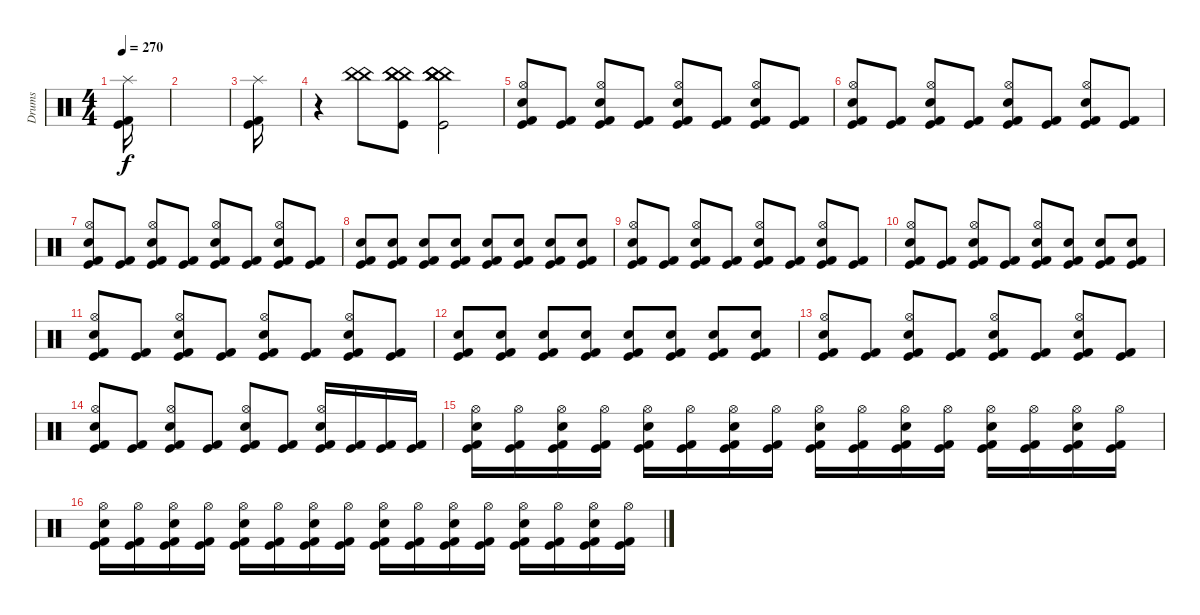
\track ("Drums" "Drums") {instrument percussion}
\staff {score}
\articulation defaults
\ts (4 4)
\tempo 270
\clef neutral
\ks c
("Splash (hit)" "Kick (hit)" "Kick (hit) 2").16{dy f} |
|
("Splash (hit)" "Kick (hit)" "Kick (hit) 2").16 |
r.4 ("China (hit)" "China (hit)").8 ("China (hit)" "China (hit)" "China (hit)" "Kick (hit)").8 ("China (hit)" "China (hit)" "China (hit)" "China (hit)" "Kick (hit)").2 |
("Hi-Hat (open)" "Electric Snare (hit)" "Kick (hit)" "Kick (hit) 2").8 ("Kick (hit)" "Kick (hit) 2").8 ("Hi-Hat (open)" "Electric Snare (hit)" "Kick (hit)" "Kick (hit) 2").8 ("Kick (hit)" "Kick (hit) 2").8 ("Hi-Hat (open)" "Electric Snare (hit)" "Kick (hit)" "Kick (hit) 2").8 ("Kick (hit)" "Kick (hit) 2").8 ("Hi-Hat (open)" "Electric Snare (hit)" "Kick (hit)" "Kick (hit) 2").8 ("Kick (hit)" "Kick (hit) 2").8 |
("Hi-Hat (open)" "Electric Snare (hit)" "Kick (hit)" "Kick (hit) 2").8 ("Kick (hit)" "Kick (hit) 2").8 ("Hi-Hat (open)" "Electric Snare (hit)" "Kick (hit)" "Kick (hit) 2").8 ("Kick (hit)" "Kick (hit) 2").8 ("Hi-Hat (open)" "Electric Snare (hit)" "Kick (hit)" "Kick (hit) 2").8 ("Kick (hit)" "Kick (hit) 2").8 ("Hi-Hat (open)" "Electric Snare (hit)" "Kick (hit)" "Kick (hit) 2").8 ("Kick (hit)" "Kick (hit) 2").8 |
("Hi-Hat (open)" "Electric Snare (hit)" "Kick (hit)" "Kick (hit) 2").8 ("Kick (hit)" "Kick (hit) 2").8 ("Hi-Hat (open)" "Electric Snare (hit)" "Kick (hit)" "Kick (hit) 2").8 ("Kick (hit)" "Kick (hit) 2").8 ("Hi-Hat (open)" "Electric Snare (hit)" "Kick (hit)" "Kick (hit) 2").8 ("Kick (hit)" "Kick (hit) 2").8 ("Hi-Hat (open)" "Electric Snare (hit)" "Kick (hit)" "Kick (hit) 2").8 ("Kick (hit)" "Kick (hit) 2").8 |
("Electric Snare (hit)" "Kick (hit)" "Kick (hit) 2").8 ("Electric Snare (hit)" "Kick (hit)" "Kick (hit) 2").8 ("Electric Snare (hit)" "Kick (hit)" "Kick (hit) 2").8 ("Electric Snare (hit)" "Kick (hit)" "Kick (hit) 2").8 ("Electric Snare (hit)" "Kick (hit)" "Kick (hit) 2").8 ("Electric Snare (hit)" "Kick (hit)" "Kick (hit) 2").8 ("Electric Snare (hit)" "Kick (hit)" "Kick (hit) 2").8 ("Electric Snare (hit)" "Kick (hit)" "Kick (hit) 2").8 |
("Hi-Hat (open)" "Electric Snare (hit)" "Kick (hit)" "Kick (hit) 2").8 ("Kick (hit)" "Kick (hit) 2").8 ("Hi-Hat (open)" "Electric Snare (hit)" "Kick (hit)" "Kick (hit) 2").8 ("Kick (hit)" "Kick (hit) 2").8 ("Hi-Hat (open)" "Electric Snare (hit)" "Kick (hit)" "Kick (hit) 2").8 ("Kick (hit)" "Kick (hit) 2").8 ("Hi-Hat (open)" "Electric Snare (hit)" "Kick (hit)" "Kick (hit) 2").8 ("Kick (hit)" "Kick (hit) 2").8 |
("Hi-Hat (open)" "Electric Snare (hit)" "Kick (hit)" "Kick (hit) 2").8 ("Kick (hit)" "Kick (hit) 2").8 ("Hi-Hat (open)" "Electric Snare (hit)" "Kick (hit)" "Kick (hit) 2").8 ("Kick (hit)" "Kick (hit) 2").8 ("Hi-Hat (open)" "Electric Snare (hit)" "Kick (hit)" "Kick (hit) 2").8 ("Electric Snare (hit)" "Kick (hit)" "Kick (hit) 2").8 ("Electric Snare (hit)" "Kick (hit)" "Kick (hit) 2").8 ("Electric Snare (hit)" "Kick (hit)" "Kick (hit) 2").8 |
("Hi-Hat (open)" "Electric Snare (hit)" "Kick (hit)" "Kick (hit) 2").8 ("Kick (hit)" "Kick (hit) 2").8 ("Hi-Hat (open)" "Electric Snare (hit)" "Kick (hit)" "Kick (hit) 2").8 ("Kick (hit)" "Kick (hit) 2").8 ("Hi-Hat (open)" "Electric Snare (hit)" "Kick (hit)" "Kick (hit) 2").8 ("Kick (hit)" "Kick (hit) 2").8 ("Hi-Hat (open)" "Electric Snare (hit)" "Kick (hit)" "Kick (hit) 2").8 ("Kick (hit)" "Kick (hit) 2").8 |
("Electric Snare (hit)" "Kick (hit)" "Kick (hit) 2").8 ("Electric Snare (hit)" "Kick (hit)" "Kick (hit) 2").8 ("Electric Snare (hit)" "Kick (hit)" "Kick (hit) 2").8 ("Electric Snare (hit)" "Kick (hit)" "Kick (hit) 2").8 ("Electric Snare (hit)" "Kick (hit)" "Kick (hit) 2").8 ("Electric Snare (hit)" "Kick (hit)" "Kick (hit) 2").8 ("Electric Snare (hit)" "Kick (hit)" "Kick (hit) 2").8 ("Electric Snare (hit)" "Kick (hit)" "Kick (hit) 2").8 |
("Hi-Hat (open)" "Electric Snare (hit)" "Kick (hit)" "Kick (hit) 2").8 ("Kick (hit)" "Kick (hit) 2").8 ("Hi-Hat (open)" "Electric Snare (hit)" "Kick (hit)" "Kick (hit) 2").8 ("Kick (hit)" "Kick (hit) 2").8 ("Hi-Hat (open)" "Electric Snare (hit)" "Kick (hit)" "Kick (hit) 2").8 ("Kick (hit)" "Kick (hit) 2").8 ("Hi-Hat (open)" "Electric Snare (hit)" "Kick (hit)" "Kick (hit) 2").8 ("Kick (hit)" "Kick (hit) 2").8 |
("Hi-Hat (open)" "Electric Snare (hit)" "Kick (hit)" "Kick (hit) 2").8 ("Kick (hit)" "Kick (hit) 2").8 ("Hi-Hat (open)" "Electric Snare (hit)" "Kick (hit)" "Kick (hit) 2").8 ("Kick (hit)" "Kick (hit) 2").8 ("Hi-Hat (open)" "Electric Snare (hit)" "Kick (hit)" "Kick (hit) 2").8 ("Kick (hit)" "Kick (hit) 2").8 ("Hi-Hat (open)" "Electric Snare (hit)" "Kick (hit)" "Kick (hit) 2").16 ("Kick (hit)" "Kick (hit) 2").16 ("Kick (hit)" "Kick (hit) 2").16 ("Kick (hit)" "Kick (hit) 2").16 |
("Hi-Hat (open)" "Electric Snare (hit)" "Kick (hit)" "Kick (hit) 2").16 ("Hi-Hat (open)" "Kick (hit)" "Kick (hit) 2").16 ("Hi-Hat (open)" "Electric Snare (hit)" "Kick (hit)" "Kick (hit) 2").16 ("Hi-Hat (open)" "Kick (hit)" "Kick (hit) 2").16 ("Hi-Hat (open)" "Electric Snare (hit)" "Kick (hit)" "Kick (hit) 2").16 ("Hi-Hat (open)" "Kick (hit)" "Kick (hit) 2").16 ("Hi-Hat (open)" "Electric Snare (hit)" "Kick (hit)" "Kick (hit) 2").16 ("Hi-Hat (open)" "Kick (hit)" "Kick (hit) 2").16 ("Hi-Hat (open)" "Electric Snare (hit)" "Kick (hit)" "Kick (hit) 2").16 ("Hi-Hat (open)" "Kick (hit)" "Kick (hit) 2").16 ("Hi-Hat (open)" "Electric Snare (hit)" "Kick (hit)" "Kick (hit) 2").16 ("Hi-Hat (open)" "Kick (hit)" "Kick (hit) 2").16 ("Hi-Hat (open)" "Electric Snare (hit)" "Kick (hit)" "Kick (hit) 2").16 ("Hi-Hat (open)" "Kick (hit)" "Kick (hit) 2").16 ("Hi-Hat (open)" "Electric Snare (hit)" "Kick (hit)" "Kick (hit) 2").16 ("Hi-Hat (open)" "Kick (hit)" "Kick (hit) 2").16 |
("Hi-Hat (open)" "Electric Snare (hit)" "Kick (hit)" "Kick (hit) 2").16 ("Hi-Hat (open)" "Kick (hit)" "Kick (hit) 2").16 ("Hi-Hat (open)" "Electric Snare (hit)" "Kick (hit)" "Kick (hit) 2").16 ("Hi-Hat (open)" "Kick (hit)" "Kick (hit) 2").16 ("Hi-Hat (open)" "Electric Snare (hit)" "Kick (hit)" "Kick (hit) 2").16 ("Hi-Hat (open)" "Kick (hit)" "Kick (hit) 2").16 ("Hi-Hat (open)" "Electric Snare (hit)" "Kick (hit)" "Kick (hit) 2").16 ("Hi-Hat (open)" "Kick (hit)" "Kick (hit) 2").16 ("Hi-Hat (open)" "Electric Snare (hit)" "Kick (hit)" "Kick (hit) 2").16 ("Hi-Hat (open)" "Kick (hit)" "Kick (hit) 2").16 ("Hi-Hat (open)" "Electric Snare (hit)" "Kick (hit)" "Kick (hit) 2").16 ("Hi-Hat (open)" "Kick (hit)" "Kick (hit) 2").16 ("Hi-Hat (open)" "Electric Snare (hit)" "Kick (hit)" "Kick (hit) 2").16 ("Hi-Hat (open)" "Kick (hit)" "Kick (hit) 2").16 ("Hi-Hat (open)" "Electric Snare (hit)" "Kick (hit)" "Kick (hit) 2").16 ("Hi-Hat (open)" "Kick (hit)" "Kick (hit) 2").16
